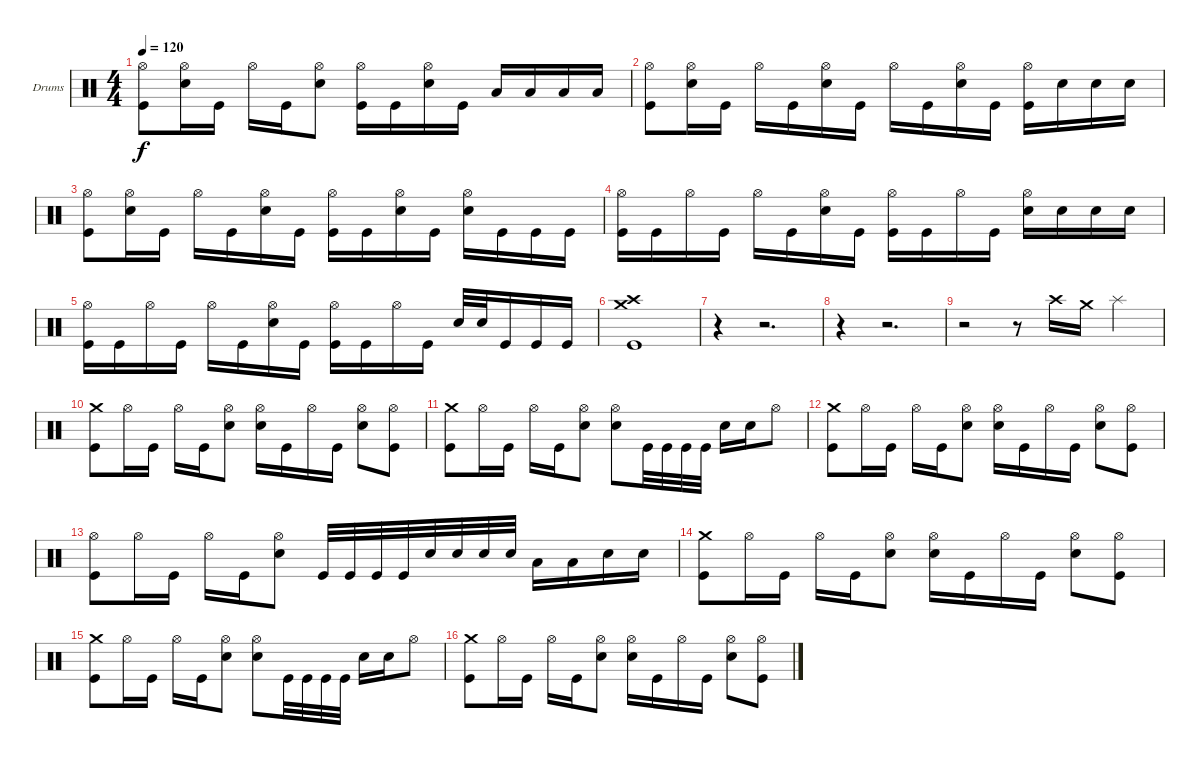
\bracketExtendMode groupsimilarinstruments
\firstSystemTrackNameOrientation horizontal
\otherSystemsTrackNameOrientation horizontal
\track ("Drumkit" "Drums") {instrument percussion}
\staff {score}
\articulation defaults
\ts (4 4)
\tempo 120
\clef neutral
\scale
0.333333
\ks c
("Hi-Hat (open)" "Kick (hit)").8{dy f} ("Hi-Hat (open)" "Snare (hit) 2").16 "Kick (hit)".16 "Hi-Hat (open)".16 "Kick (hit)".16 ("Hi-Hat (open)" "Snare (hit) 2").8 ("Hi-Hat (open)" "Kick (hit)").16 "Kick (hit)".16 ("Hi-Hat (open)" "Snare (hit) 2").16 "Kick (hit)".16 "Low Tom (hit)".16 "Low Tom (hit)".16 "Low Tom (hit)".16 "Low Tom (hit)".16 |
\scale
0.333333 ("Hi-Hat (open)" "Kick (hit)").8 ("Hi-Hat (open)" "Snare (hit) 2").16 "Kick (hit)".16 "Hi-Hat (open)".16 "Kick (hit)".16 ("Hi-Hat (open)" "Snare (hit) 2").16 "Kick (hit)".16 "Hi-Hat (open)".16 "Kick (hit)".16 ("Hi-Hat (open)" "Snare (hit) 2").16 "Kick (hit)".16 ("Hi-Hat (open)" "Kick (hit)").16 "Snare (hit) 2".16 "Snare (hit) 2".16 "Snare (hit) 2".16 |
\scale
0.333333 ("Hi-Hat (open)" "Kick (hit)").8 ("Hi-Hat (open)" "Snare (hit) 2").16 "Kick (hit)".16 "Hi-Hat (open)".16 "Kick (hit)".16 ("Hi-Hat (open)" "Snare (hit) 2").16 "Kick (hit)".16 ("Hi-Hat (open)" "Kick (hit)").16 "Kick (hit)".16 ("Hi-Hat (open)" "Snare (hit) 2").16 "Kick (hit)".16 ("Hi-Hat (open)" "Snare (hit) 2").16 "Kick (hit)".16 "Kick (hit)".16 "Kick (hit)".16 |
\scale
0.333333 ("Hi-Hat (open)" "Kick (hit)").16 "Kick (hit)".16 "Hi-Hat (open)".16 "Kick (hit)".16 "Hi-Hat (open)".16 "Kick (hit)".16 ("Hi-Hat (open)" "Snare (hit) 2").16 "Kick (hit)".16 ("Hi-Hat (open)" "Kick (hit)").16 "Kick (hit)".16 "Hi-Hat (open)".16 "Kick (hit)".16 ("Hi-Hat (open)" "Snare (hit) 2").16 "Snare (hit) 2".16 "Snare (hit) 2".16 "Snare (hit) 2".16 |
\scale
0.333333 ("Hi-Hat (open)" "Kick (hit)").16 "Kick (hit)".16 "Hi-Hat (open)".16 "Kick (hit)".16 "Hi-Hat (open)".16 "Kick (hit)".16 ("Hi-Hat (open)" "Snare (hit) 2").16 "Kick (hit)".16 ("Hi-Hat (open)" "Kick (hit)").16 "Kick (hit)".16 "Hi-Hat (open)".16 "Kick (hit)".16 "Snare (hit) 2".32 "Snare (hit) 2".32 "Kick (hit)".16 "Kick (hit)".16 "Kick (hit)".16 |
\scale
0.333333 ("Crash medium (hit)" "Crash high (hit)" "Kick (hit)").1 |
\scale
0.333333 r.4 r.2{d} |
\scale
0.333333 r.4 r.2{d} |
\scale
0.333333 r.2 r.8 "Crash high (hit)".16 "Crash medium (hit)".16 "Splash (hit)".4 |
\scale
0.333333 ("Crash medium (hit)" "Kick (hit)").8 "Hi-Hat (open)".16 "Kick (hit)".16 "Hi-Hat (open)".16 "Kick (hit)".16 ("Hi-Hat (open)" "Snare (hit) 2").8 ("Hi-Hat (open)" "Snare (hit) 2").16 "Kick (hit)".16 "Hi-Hat (open)".16 "Kick (hit)".16 ("Hi-Hat (open)" "Snare (hit) 2").8 ("Hi-Hat (open)" "Kick (hit)").8 |
\scale
0.333333 ("Crash medium (hit)" "Kick (hit)").8 "Hi-Hat (open)".16 "Kick (hit)".16 "Hi-Hat (open)".16 "Kick (hit)".16 ("Hi-Hat (open)" "Snare (hit) 2").8 ("Hi-Hat (open)" "Snare (hit) 2").8 "Kick (hit)".32 "Kick (hit)".32 "Kick (hit)".32 "Kick (hit)".32 "Snare (hit) 2".16 "Snare (hit) 2".16 "Hi-Hat (open)".8 |
\scale
0.333333 ("Crash medium (hit)" "Kick (hit)").8 "Hi-Hat (open)".16 "Kick (hit)".16 "Hi-Hat (open)".16 "Kick (hit)".16 ("Hi-Hat (open)" "Snare (hit) 2").8 ("Hi-Hat (open)" "Snare (hit) 2").16 "Kick (hit)".16 "Hi-Hat (open)".16 "Kick (hit)".16 ("Hi-Hat (open)" "Snare (hit) 2").8 ("Hi-Hat (open)" "Kick (hit)").8 |
\scale
0.333333 ("Hi-Hat (open)" "Kick (hit)").8 "Hi-Hat (open)".16 "Kick (hit)".16 "Hi-Hat (open)".16 "Kick (hit)".16 ("Hi-Hat (open)" "Snare (hit) 2").8 "Kick (hit)".32 "Kick (hit)".32 "Kick (hit)".32 "Kick (hit)".32 "Snare (hit) 2".32 "Snare (hit) 2".32 "Snare (hit) 2".32 "Snare (hit) 2".32 "Low Tom (hit)".16 "Low Tom (hit)".16 "Snare (hit) 2".16 "Snare (hit) 2".16 |
\scale
0.333333 ("Crash medium (hit)" "Kick (hit)").8 "Hi-Hat (open)".16 "Kick (hit)".16 "Hi-Hat (open)".16 "Kick (hit)".16 ("Hi-Hat (open)" "Snare (hit) 2").8 ("Hi-Hat (open)" "Snare (hit) 2").16 "Kick (hit)".16 "Hi-Hat (open)".16 "Kick (hit)".16 ("Hi-Hat (open)" "Snare (hit) 2").8 ("Hi-Hat (open)" "Kick (hit)").8 |
\scale
0.333333 ("Crash medium (hit)" "Kick (hit)").8 "Hi-Hat (open)".16 "Kick (hit)".16 "Hi-Hat (open)".16 "Kick (hit)".16 ("Hi-Hat (open)" "Snare (hit) 2").8 ("Hi-Hat (open)" "Snare (hit) 2").8 "Kick (hit)".32 "Kick (hit)".32 "Kick (hit)".32 "Kick (hit)".32 "Snare (hit) 2".16 "Snare (hit) 2".16 "Hi-Hat (open)".8 |
\scale
0.333333 ("Crash medium (hit)" "Kick (hit)").8 "Hi-Hat (open)".16 "Kick (hit)".16 "Hi-Hat (open)".16 "Kick (hit)".16 ("Hi-Hat (open)" "Snare (hit) 2").8 ("Hi-Hat (open)" "Snare (hit) 2").16 "Kick (hit)".16 "Hi-Hat (open)".16 "Kick (hit)".16 ("Hi-Hat (open)" "Snare (hit) 2").8 ("Hi-Hat (open)" "Kick (hit)").8
